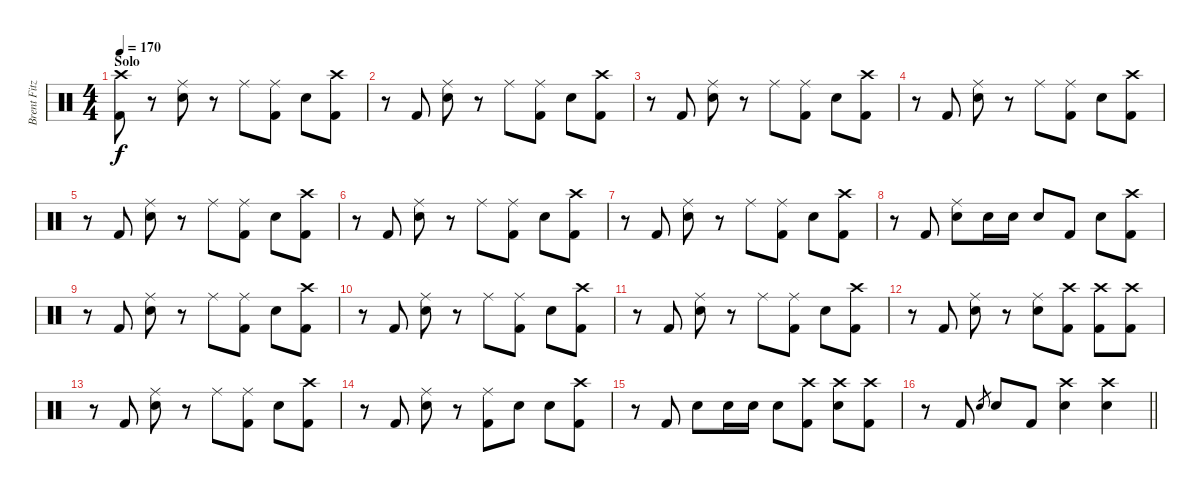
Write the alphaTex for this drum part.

\track ("Brent Fitz" "Brent Fitz") {instrument percussion}
\staff {score}
\articulation defaults
\ts (4 4)
\section ("" "Solo")
\tempo 170
\clef neutral
\ks c
("Crash high (hit)" "Kick (hit) 2").8{dy f} r.8 ("Ride (middle)" "Electric Snare (hit)").8 r.8 "Ride (middle)".8 ("Ride (middle)" "Kick (hit) 2").8 "Electric Snare (hit)".8 ("Crash high (hit)" "Kick (hit) 2").8 |
r.8 "Kick (hit) 2".8 ("Ride (middle)" "Electric Snare (hit)").8 r.8 "Ride (middle)".8 ("Ride (middle)" "Kick (hit) 2").8 "Electric Snare (hit)".8 ("Crash high (hit)" "Kick (hit) 2").8 |
r.8 "Kick (hit) 2".8 ("Ride (middle)" "Electric Snare (hit)").8 r.8 "Ride (middle)".8 ("Ride (middle)" "Kick (hit) 2").8 "Electric Snare (hit)".8 ("Crash high (hit)" "Kick (hit) 2").8 |
r.8 "Kick (hit) 2".8 ("Ride (middle)" "Electric Snare (hit)").8 r.8 "Ride (middle)".8 ("Ride (middle)" "Kick (hit) 2").8 "Electric Snare (hit)".8 ("Crash high (hit)" "Kick (hit) 2").8 |
r.8 "Kick (hit) 2".8 ("Ride (middle)" "Electric Snare (hit)").8 r.8 "Ride (middle)".8 ("Ride (middle)" "Kick (hit) 2").8 "Electric Snare (hit)".8 ("Crash high (hit)" "Kick (hit) 2").8 |
r.8 "Kick (hit) 2".8 ("Ride (middle)" "Electric Snare (hit)").8 r.8 "Ride (middle)".8 ("Ride (middle)" "Kick (hit) 2").8 "Electric Snare (hit)".8 ("Crash high (hit)" "Kick (hit) 2").8 |
r.8 "Kick (hit) 2".8 ("Ride (middle)" "Electric Snare (hit)").8 r.8 "Ride (middle)".8 ("Ride (middle)" "Kick (hit) 2").8 "Electric Snare (hit)".8 ("Crash high (hit)" "Kick (hit) 2").8 |
r.8 "Kick (hit) 2".8 ("Ride (middle)" "Electric Snare (hit)").8 "Electric Snare (hit)".16 "Electric Snare (hit)".16 "Electric Snare (hit)".8 "Kick (hit) 2".8 "Electric Snare (hit)".8 ("Crash high (hit)" "Kick (hit) 2").8 |
r.8 "Kick (hit) 2".8 ("Ride (middle)" "Electric Snare (hit)").8 r.8 "Ride (middle)".8 ("Ride (middle)" "Kick (hit) 2").8 "Electric Snare (hit)".8 ("Crash high (hit)" "Kick (hit) 2").8 |
r.8 "Kick (hit) 2".8 ("Ride (middle)" "Electric Snare (hit)").8 r.8 "Ride (middle)".8 ("Ride (middle)" "Kick (hit) 2").8 "Electric Snare (hit)".8 ("Crash high (hit)" "Kick (hit) 2").8 |
r.8 "Kick (hit) 2".8 ("Ride (middle)" "Electric Snare (hit)").8 r.8 "Ride (middle)".8 ("Ride (middle)" "Kick (hit) 2").8 "Electric Snare (hit)".8 ("Crash high (hit)" "Kick (hit) 2").8 |
r.8 "Kick (hit) 2".8 ("Ride (middle)" "Electric Snare (hit)").8 r.8 ("Ride (middle)" "Electric Snare (hit)").8 ("Crash high (hit)" "Kick (hit) 2").8 ("Crash high (hit)" "Kick (hit) 2").8 ("Crash high (hit)" "Kick (hit) 2").8 |
r.8 "Kick (hit) 2".8 ("Ride (middle)" "Electric Snare (hit)").8 r.8 "Ride (middle)".8 ("Ride (middle)" "Kick (hit) 2").8 "Electric Snare (hit)".8 ("Crash high (hit)" "Kick (hit) 2").8 |
r.8 "Kick (hit) 2".8 ("Ride (middle)" "Electric Snare (hit)").8 r.8 ("Ride (middle)" "Kick (hit) 2").8 "Electric Snare (hit)".8 "Electric Snare (hit)".8 ("Crash high (hit)" "Kick (hit) 2").8 |
r.8 "Kick (hit) 2".8 "Electric Snare (hit)".8 "Electric Snare (hit)".16 "Electric Snare (hit)".16 "Electric Snare (hit)".8 ("Crash high (hit)" "Kick (hit) 2").8 ("Crash high (hit)" "Electric Snare (hit)").8 ("Crash high (hit)" "Kick (hit) 2").8 |
\barLineRight lightlight
r.8 "Kick (hit) 2".8 "Electric Snare (hit)".8{gr} "Electric Snare (hit)".8 "Kick (hit) 2".8 ("Crash high (hit)" "Electric Snare (hit)").4 ("Crash high (hit)" "Electric Snare (hit)").4
